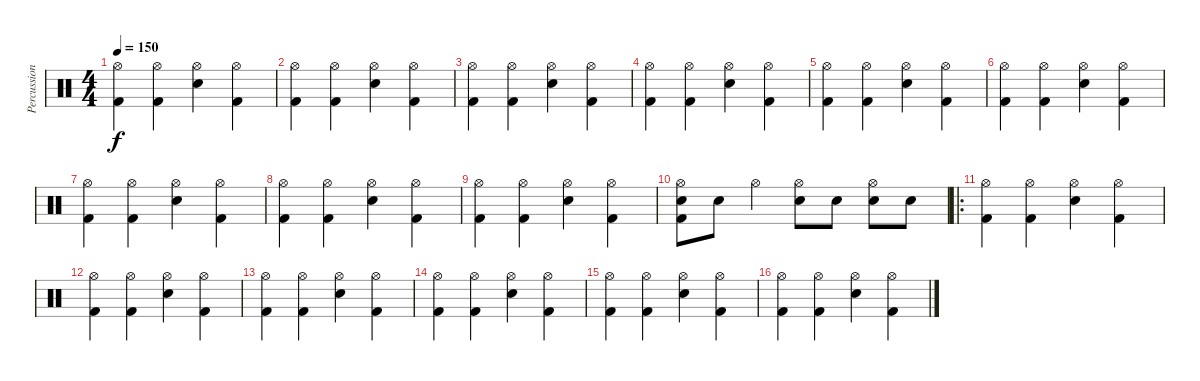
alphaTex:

\track ("Percussions" "Percussion") {instrument percussion}
\staff {score}
\articulation defaults
\ts (4 4)
\tempo 150
\clef neutral
\ks c
("Hi-Hat (open)" "Kick (hit) 2").4{dy f} ("Hi-Hat (open)" "Kick (hit) 2").4 ("Hi-Hat (open)" "Electric Snare (hit)").4 ("Hi-Hat (open)" "Kick (hit) 2").4 |
("Hi-Hat (open)" "Kick (hit) 2").4 ("Hi-Hat (open)" "Kick (hit) 2").4 ("Hi-Hat (open)" "Electric Snare (hit)").4 ("Hi-Hat (open)" "Kick (hit) 2").4 |
("Hi-Hat (open)" "Kick (hit) 2").4 ("Hi-Hat (open)" "Kick (hit) 2").4 ("Hi-Hat (open)" "Electric Snare (hit)").4 ("Hi-Hat (open)" "Kick (hit) 2").4 |
("Hi-Hat (open)" "Kick (hit) 2").4 ("Hi-Hat (open)" "Kick (hit) 2").4 ("Hi-Hat (open)" "Electric Snare (hit)").4 ("Hi-Hat (open)" "Kick (hit) 2").4 |
("Hi-Hat (open)" "Kick (hit) 2").4 ("Hi-Hat (open)" "Kick (hit) 2").4 ("Hi-Hat (open)" "Electric Snare (hit)").4 ("Hi-Hat (open)" "Kick (hit) 2").4 |
("Hi-Hat (open)" "Kick (hit) 2").4 ("Hi-Hat (open)" "Kick (hit) 2").4 ("Hi-Hat (open)" "Electric Snare (hit)").4 ("Hi-Hat (open)" "Kick (hit) 2").4 |
("Hi-Hat (open)" "Kick (hit) 2").4 ("Hi-Hat (open)" "Kick (hit) 2").4 ("Hi-Hat (open)" "Electric Snare (hit)").4 ("Hi-Hat (open)" "Kick (hit) 2").4 |
("Hi-Hat (open)" "Kick (hit) 2").4 ("Hi-Hat (open)" "Kick (hit) 2").4 ("Hi-Hat (open)" "Electric Snare (hit)").4 ("Hi-Hat (open)" "Kick (hit) 2").4 |
("Hi-Hat (open)" "Kick (hit) 2").4 ("Hi-Hat (open)" "Kick (hit) 2").4 ("Hi-Hat (open)" "Electric Snare (hit)").4 ("Hi-Hat (open)" "Kick (hit) 2").4 |
("Hi-Hat (open)" "Snare (hit) 2" "Kick (hit) 2").8 "Snare (hit) 2".8 "Hi-Hat (open)".4 ("Hi-Hat (open)" "Snare (hit) 2").8 "Snare (hit) 2".8 ("Hi-Hat (open)" "Snare (hit) 2").8 "Snare (hit) 2".8 |
\ro
("Hi-Hat (open)" "Kick (hit) 2").4 ("Hi-Hat (open)" "Kick (hit) 2").4 ("Hi-Hat (open)" "Electric Snare (hit)").4 ("Hi-Hat (open)" "Kick (hit) 2").4 |
("Hi-Hat (open)" "Kick (hit) 2").4 ("Hi-Hat (open)" "Kick (hit) 2").4 ("Hi-Hat (open)" "Electric Snare (hit)").4 ("Hi-Hat (open)" "Kick (hit) 2").4 |
("Hi-Hat (open)" "Kick (hit) 2").4 ("Hi-Hat (open)" "Kick (hit) 2").4 ("Hi-Hat (open)" "Electric Snare (hit)").4 ("Hi-Hat (open)" "Kick (hit) 2").4 |
("Hi-Hat (open)" "Kick (hit) 2").4 ("Hi-Hat (open)" "Kick (hit) 2").4 ("Hi-Hat (open)" "Electric Snare (hit)").4 ("Hi-Hat (open)" "Kick (hit) 2").4 |
("Hi-Hat (open)" "Kick (hit) 2").4 ("Hi-Hat (open)" "Kick (hit) 2").4 ("Hi-Hat (open)" "Electric Snare (hit)").4 ("Hi-Hat (open)" "Kick (hit) 2").4 |
("Hi-Hat (open)" "Kick (hit) 2").4 ("Hi-Hat (open)" "Kick (hit) 2").4 ("Hi-Hat (open)" "Electric Snare (hit)").4 ("Hi-Hat (open)" "Kick (hit) 2").4
